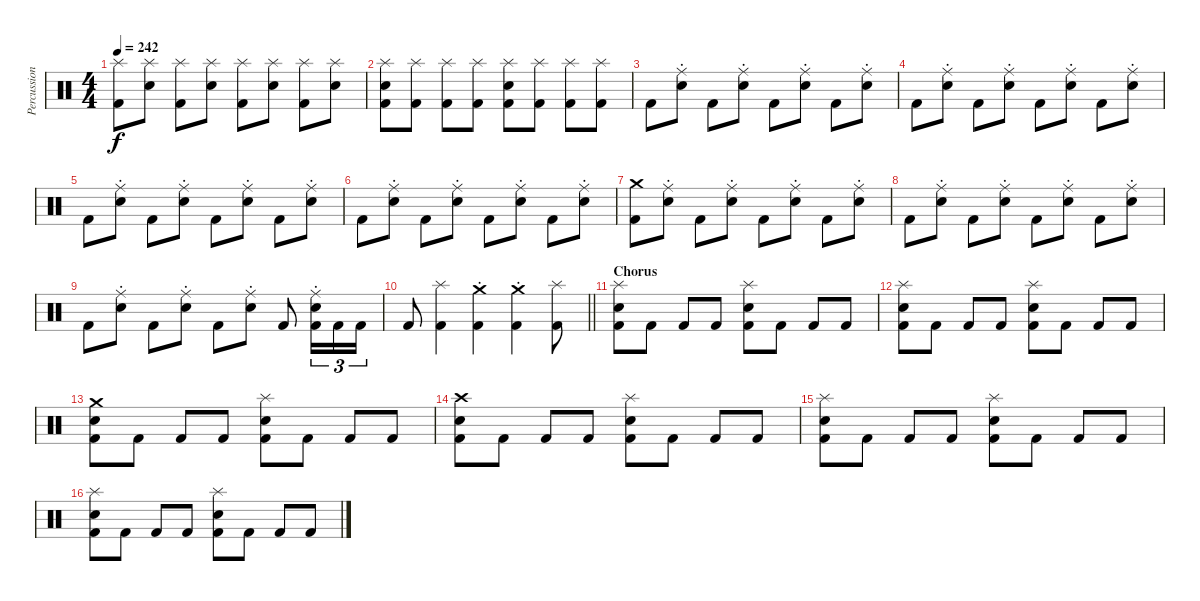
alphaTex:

\track ("Percussion" "Percussion") {instrument percussion}
\staff {score}
\articulation defaults
\ts (4 4)
\tempo 242
\clef neutral
\ks c
("Splash (hit)" "Kick (hit) 2").8{dy f} ("Splash (hit)" "Snare (hit) 2").8 ("Splash (hit)" "Kick (hit) 2").8 ("Splash (hit)" "Snare (hit) 2").8 ("Splash (hit)" "Kick (hit) 2").8 ("Splash (hit)" "Snare (hit) 2").8 ("Splash (hit)" "Kick (hit) 2").8 ("Splash (hit)" "Snare (hit) 2").8 |
("Splash (hit)" "Snare (hit) 2" "Kick (hit) 2").8 ("Splash (hit)" "Kick (hit) 2").8 ("Splash (hit)" "Kick (hit) 2").8 ("Splash (hit)" "Kick (hit) 2").8 ("Splash (hit)" "Snare (hit) 2" "Kick (hit) 2").8 ("Splash (hit)" "Kick (hit) 2").8 ("Splash (hit)" "Kick (hit) 2").8 ("Splash (hit)" "Kick (hit) 2").8 |
"Kick (hit) 2".8 ("Ride (middle)"{st} "Snare (hit) 2").8 "Kick (hit) 2".8 ("Ride (middle)"{st} "Snare (hit) 2").8 "Kick (hit) 2".8 ("Ride (middle)"{st} "Snare (hit) 2").8 "Kick (hit) 2".8 ("Ride (middle)"{st} "Snare (hit) 2").8 |
"Kick (hit) 2".8 ("Ride (middle)"{st} "Snare (hit) 2").8 "Kick (hit) 2".8 ("Ride (middle)"{st} "Snare (hit) 2").8 "Kick (hit) 2".8 ("Ride (middle)"{st} "Snare (hit) 2").8 "Kick (hit) 2".8 ("Ride (middle)"{st} "Snare (hit) 2").8 |
"Kick (hit) 2".8 ("Ride (middle)"{st} "Snare (hit) 2").8 "Kick (hit) 2".8 ("Ride (middle)"{st} "Snare (hit) 2").8 "Kick (hit) 2".8 ("Ride (middle)"{st} "Snare (hit) 2").8 "Kick (hit) 2".8 ("Ride (middle)"{st} "Snare (hit) 2").8 |
"Kick (hit) 2".8 ("Ride (middle)"{st} "Snare (hit) 2").8 "Kick (hit) 2".8 ("Ride (middle)"{st} "Snare (hit) 2").8 "Kick (hit) 2".8 ("Ride (middle)"{st} "Snare (hit) 2").8 "Kick (hit) 2".8 ("Ride (middle)"{st} "Snare (hit) 2").8 |
("Crash medium (hit)" "Kick (hit) 2").8 ("Ride (middle)"{st} "Snare (hit) 2").8 "Kick (hit) 2".8 ("Ride (middle)"{st} "Snare (hit) 2").8 "Kick (hit) 2".8 ("Ride (middle)"{st} "Snare (hit) 2").8 "Kick (hit) 2".8 ("Ride (middle)"{st} "Snare (hit) 2").8 |
"Kick (hit) 2".8 ("Ride (middle)"{st} "Snare (hit) 2").8 "Kick (hit) 2".8 ("Ride (middle)"{st} "Snare (hit) 2").8 "Kick (hit) 2".8 ("Ride (middle)"{st} "Snare (hit) 2").8 "Kick (hit) 2".8 ("Ride (middle)"{st} "Snare (hit) 2").8 |
"Kick (hit) 2".8 ("Ride (middle)"{st} "Snare (hit) 2").8 "Kick (hit) 2".8 ("Ride (middle)"{st} "Snare (hit) 2").8 "Kick (hit) 2".8 ("Ride (middle)"{st} "Snare (hit) 2").8 "Kick (hit) 2".8 ("Ride (middle)"{st} "Snare (hit) 2" "Kick (hit) 2").16{tu (3 2)} "Kick (hit) 2".16{tu (3 2)} "Kick (hit) 2".16{tu (3 2)} |
\barLineRight lightlight "Kick (hit) 2".8
("Splash (hit)" "Kick (hit) 2").4 ("Crash medium (hit)"{st} "Kick (hit) 2").4 ("Crash medium (hit)"{st} "Kick (hit) 2").4 ("Splash (hit)" "Kick (hit) 2").8 |
\section ("" "Chorus")
("Splash (hit)" "Snare (hit) 2" "Kick (hit) 2").8 "Kick (hit) 2".8 "Kick (hit) 2".8 "Kick (hit) 2".8 ("Splash (hit)" "Snare (hit) 2" "Kick (hit) 2").8 "Kick (hit) 2".8 "Kick (hit) 2".8 "Kick (hit) 2".8 |
("Splash (hit)" "Snare (hit) 2" "Kick (hit) 2").8 "Kick (hit) 2".8 "Kick (hit) 2".8 "Kick (hit) 2".8 ("Splash (hit)" "Snare (hit) 2" "Kick (hit) 2").8 "Kick (hit) 2".8 "Kick (hit) 2".8 "Kick (hit) 2".8 |
("Crash medium (hit)" "Snare (hit) 2" "Kick (hit) 2").8 "Kick (hit) 2".8 "Kick (hit) 2".8 "Kick (hit) 2".8 ("Splash (hit)" "Snare (hit) 2" "Kick (hit) 2").8 "Kick (hit) 2".8 "Kick (hit) 2".8 "Kick (hit) 2".8 |
("Crash high (hit)" "Snare (hit) 2" "Kick (hit) 2").8 "Kick (hit) 2".8 "Kick (hit) 2".8 "Kick (hit) 2".8 ("Splash (hit)" "Snare (hit) 2" "Kick (hit) 2").8 "Kick (hit) 2".8 "Kick (hit) 2".8 "Kick (hit) 2".8 |
("Splash (hit)" "Snare (hit) 2" "Kick (hit) 2").8 "Kick (hit) 2".8 "Kick (hit) 2".8 "Kick (hit) 2".8 ("Splash (hit)" "Snare (hit) 2" "Kick (hit) 2").8 "Kick (hit) 2".8 "Kick (hit) 2".8 "Kick (hit) 2".8 |
("Splash (hit)" "Snare (hit) 2" "Kick (hit) 2").8 "Kick (hit) 2".8 "Kick (hit) 2".8 "Kick (hit) 2".8 ("Splash (hit)" "Snare (hit) 2" "Kick (hit) 2").8 "Kick (hit) 2".8 "Kick (hit) 2".8 "Kick (hit) 2".8
